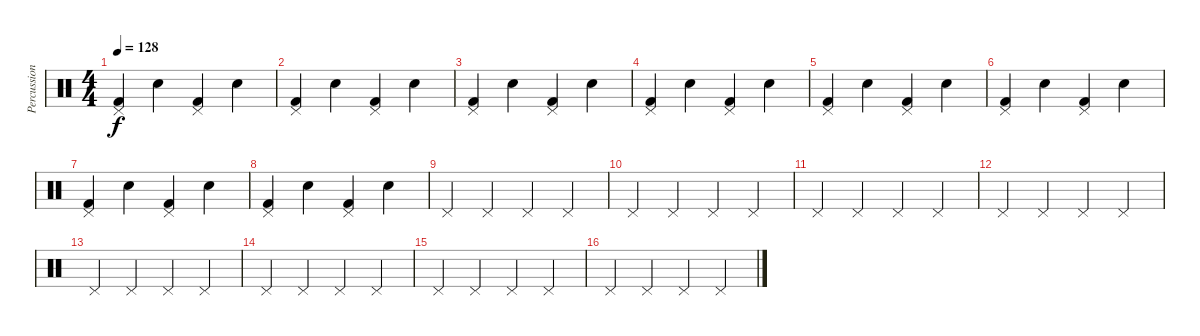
\track ("Percussion" "Percussion") {instrument percussion}
\staff {score}
\articulation defaults
\ts (4 4)
\tempo 128
\clef neutral
\ks c
("Kick (hit) 2" "Pedal Hi-Hat (hit)").4{dy f} "Snare (hit) 2".4 ("Pedal Hi-Hat (hit)" "Kick (hit) 2").4 "Snare (hit) 2".4 |
("Kick (hit) 2" "Pedal Hi-Hat (hit)").4 "Snare (hit) 2".4 ("Pedal Hi-Hat (hit)" "Kick (hit) 2").4 "Snare (hit) 2".4 |
("Kick (hit) 2" "Pedal Hi-Hat (hit)").4 "Snare (hit) 2".4 ("Pedal Hi-Hat (hit)" "Kick (hit) 2").4 "Snare (hit) 2".4 |
("Kick (hit) 2" "Pedal Hi-Hat (hit)").4 "Snare (hit) 2".4 ("Pedal Hi-Hat (hit)" "Kick (hit) 2").4 "Snare (hit) 2".4 |
("Kick (hit) 2" "Pedal Hi-Hat (hit)").4 "Snare (hit) 2".4 ("Pedal Hi-Hat (hit)" "Kick (hit) 2").4 "Snare (hit) 2".4 |
("Kick (hit) 2" "Pedal Hi-Hat (hit)").4 "Snare (hit) 2".4 ("Pedal Hi-Hat (hit)" "Kick (hit) 2").4 "Snare (hit) 2".4 |
("Kick (hit) 2" "Pedal Hi-Hat (hit)").4 "Snare (hit) 2".4 ("Pedal Hi-Hat (hit)" "Kick (hit) 2").4 "Snare (hit) 2".4 |
("Kick (hit) 2" "Pedal Hi-Hat (hit)").4 "Snare (hit) 2".4 ("Pedal Hi-Hat (hit)" "Kick (hit) 2").4 "Snare (hit) 2".4 |
"Pedal Hi-Hat (hit)".4 "Pedal Hi-Hat (hit)".4 "Pedal Hi-Hat (hit)".4 "Pedal Hi-Hat (hit)".4 |
"Pedal Hi-Hat (hit)".4 "Pedal Hi-Hat (hit)".4 "Pedal Hi-Hat (hit)".4 "Pedal Hi-Hat (hit)".4 |
"Pedal Hi-Hat (hit)".4 "Pedal Hi-Hat (hit)".4 "Pedal Hi-Hat (hit)".4 "Pedal Hi-Hat (hit)".4 |
"Pedal Hi-Hat (hit)".4 "Pedal Hi-Hat (hit)".4 "Pedal Hi-Hat (hit)".4 "Pedal Hi-Hat (hit)".4 |
"Pedal Hi-Hat (hit)".4 "Pedal Hi-Hat (hit)".4 "Pedal Hi-Hat (hit)".4 "Pedal Hi-Hat (hit)".4 |
"Pedal Hi-Hat (hit)".4 "Pedal Hi-Hat (hit)".4 "Pedal Hi-Hat (hit)".4 "Pedal Hi-Hat (hit)".4 |
"Pedal Hi-Hat (hit)".4 "Pedal Hi-Hat (hit)".4 "Pedal Hi-Hat (hit)".4 "Pedal Hi-Hat (hit)".4 |
"Pedal Hi-Hat (hit)".4 "Pedal Hi-Hat (hit)".4 "Pedal Hi-Hat (hit)".4 "Pedal Hi-Hat (hit)".4
